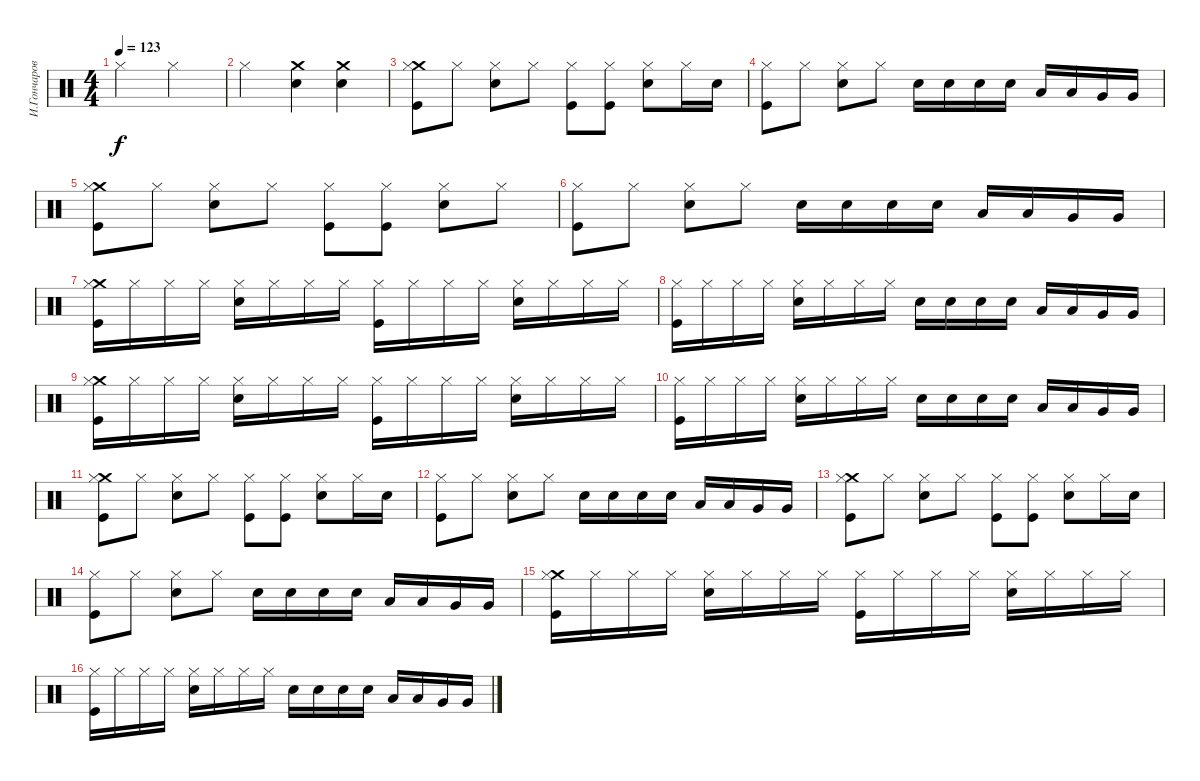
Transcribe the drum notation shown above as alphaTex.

\track ("И.Гончаров" "И.Гончаров") {instrument percussion}
\staff {score}
\articulation defaults
\ts (4 4)
\tempo 123
\clef neutral
\ks c "Hi-Hat (closed)".2{dy f} "Hi-Hat (closed)".2
|
"Hi-Hat (closed)".2 ("Crash medium (hit)" "Snare (hit) 2").4 ("Crash medium (hit)" "Snare (hit) 2").4 |
("Crash medium (hit)" "Hi-Hat (closed)" "Kick (hit)").8 "Hi-Hat (closed)".8 ("Hi-Hat (closed)" "Snare (hit) 2").8 "Hi-Hat (closed)".8 ("Hi-Hat (closed)" "Kick (hit)").8 ("Hi-Hat (closed)" "Kick (hit)").8 ("Hi-Hat (closed)" "Snare (hit) 2").8 "Hi-Hat (closed)".16 "Snare (hit) 2".16 |
("Hi-Hat (closed)" "Kick (hit)").8 "Hi-Hat (closed)".8 ("Hi-Hat (closed)" "Snare (hit) 2").8 "Hi-Hat (closed)".8 "Snare (hit) 2".16 "Snare (hit) 2".16 "Snare (hit) 2".16 "Snare (hit) 2".16 "Low Tom (hit)".16 "Low Tom (hit)".16 "Very Low Tom (hit)".16 "Very Low Tom (hit)".16 |
("Crash medium (hit)" "Hi-Hat (closed)" "Kick (hit)").8 "Hi-Hat (closed)".8 ("Hi-Hat (closed)" "Snare (hit) 2").8 "Hi-Hat (closed)".8 ("Hi-Hat (closed)" "Kick (hit)").8 ("Hi-Hat (closed)" "Kick (hit)").8 ("Hi-Hat (closed)" "Snare (hit) 2").8 "Hi-Hat (closed)".8 |
("Hi-Hat (closed)" "Kick (hit)").8 "Hi-Hat (closed)".8 ("Hi-Hat (closed)" "Snare (hit) 2").8 "Hi-Hat (closed)".8 "Snare (hit) 2".16 "Snare (hit) 2".16 "Snare (hit) 2".16 "Snare (hit) 2".16 "Low Tom (hit)".16 "Low Tom (hit)".16 "Very Low Tom (hit)".16 "Very Low Tom (hit)".16 |
("Crash medium (hit)" "Hi-Hat (closed)" "Kick (hit)").16 "Hi-Hat (closed)".16 "Hi-Hat (closed)".16 "Hi-Hat (closed)".16 ("Hi-Hat (closed)" "Snare (hit) 2").16 "Hi-Hat (closed)".16 "Hi-Hat (closed)".16 "Hi-Hat (closed)".16 ("Hi-Hat (closed)" "Kick (hit)").16 "Hi-Hat (closed)".16 "Hi-Hat (closed)".16 "Hi-Hat (closed)".16 ("Hi-Hat (closed)" "Snare (hit) 2").16 "Hi-Hat (closed)".16 "Hi-Hat (closed)".16 "Hi-Hat (closed)".16 |
("Hi-Hat (closed)" "Kick (hit)").16 "Hi-Hat (closed)".16 "Hi-Hat (closed)".16 "Hi-Hat (closed)".16 ("Hi-Hat (closed)" "Snare (hit) 2").16 "Hi-Hat (closed)".16 "Hi-Hat (closed)".16 "Hi-Hat (closed)".16 "Snare (hit) 2".16 "Snare (hit) 2".16 "Snare (hit) 2".16 "Snare (hit) 2".16 "Low Tom (hit)".16 "Low Tom (hit)".16 "Very Low Tom (hit)".16 "Very Low Tom (hit)".16 |
("Crash medium (hit)" "Hi-Hat (closed)" "Kick (hit)").16 "Hi-Hat (closed)".16 "Hi-Hat (closed)".16 "Hi-Hat (closed)".16 ("Hi-Hat (closed)" "Snare (hit) 2").16 "Hi-Hat (closed)".16 "Hi-Hat (closed)".16 "Hi-Hat (closed)".16 ("Hi-Hat (closed)" "Kick (hit)").16 "Hi-Hat (closed)".16 "Hi-Hat (closed)".16 "Hi-Hat (closed)".16 ("Hi-Hat (closed)" "Snare (hit) 2").16 "Hi-Hat (closed)".16 "Hi-Hat (closed)".16 "Hi-Hat (closed)".16 |
("Hi-Hat (closed)" "Kick (hit)").16 "Hi-Hat (closed)".16 "Hi-Hat (closed)".16 "Hi-Hat (closed)".16 ("Hi-Hat (closed)" "Snare (hit) 2").16 "Hi-Hat (closed)".16 "Hi-Hat (closed)".16 "Hi-Hat (closed)".16 "Snare (hit) 2".16 "Snare (hit) 2".16 "Snare (hit) 2".16 "Snare (hit) 2".16 "Low Tom (hit)".16 "Low Tom (hit)".16 "Very Low Tom (hit)".16 "Very Low Tom (hit)".16 |
("Crash medium (hit)" "Hi-Hat (closed)" "Kick (hit)").8 "Hi-Hat (closed)".8 ("Hi-Hat (closed)" "Snare (hit) 2").8 "Hi-Hat (closed)".8 ("Hi-Hat (closed)" "Kick (hit)").8 ("Hi-Hat (closed)" "Kick (hit)").8 ("Hi-Hat (closed)" "Snare (hit) 2").8 "Hi-Hat (closed)".16 "Snare (hit) 2".16 |
("Hi-Hat (closed)" "Kick (hit)").8 "Hi-Hat (closed)".8 ("Hi-Hat (closed)" "Snare (hit) 2").8 "Hi-Hat (closed)".8 "Snare (hit) 2".16 "Snare (hit) 2".16 "Snare (hit) 2".16 "Snare (hit) 2".16 "Low Tom (hit)".16 "Low Tom (hit)".16 "Very Low Tom (hit)".16 "Very Low Tom (hit)".16 |
("Crash medium (hit)" "Hi-Hat (closed)" "Kick (hit)").8 "Hi-Hat (closed)".8 ("Hi-Hat (closed)" "Snare (hit) 2").8 "Hi-Hat (closed)".8 ("Hi-Hat (closed)" "Kick (hit)").8 ("Hi-Hat (closed)" "Kick (hit)").8 ("Hi-Hat (closed)" "Snare (hit) 2").8 "Hi-Hat (closed)".16 "Snare (hit) 2".16 |
("Hi-Hat (closed)" "Kick (hit)").8 "Hi-Hat (closed)".8 ("Hi-Hat (closed)" "Snare (hit) 2").8 "Hi-Hat (closed)".8 "Snare (hit) 2".16 "Snare (hit) 2".16 "Snare (hit) 2".16 "Snare (hit) 2".16 "Low Tom (hit)".16 "Low Tom (hit)".16 "Very Low Tom (hit)".16 "Very Low Tom (hit)".16 |
("Crash medium (hit)" "Hi-Hat (closed)" "Kick (hit)").16 "Hi-Hat (closed)".16 "Hi-Hat (closed)".16 "Hi-Hat (closed)".16 ("Hi-Hat (closed)" "Snare (hit) 2").16 "Hi-Hat (closed)".16 "Hi-Hat (closed)".16 "Hi-Hat (closed)".16 ("Hi-Hat (closed)" "Kick (hit)").16 "Hi-Hat (closed)".16 "Hi-Hat (closed)".16 "Hi-Hat (closed)".16 ("Hi-Hat (closed)" "Snare (hit) 2").16 "Hi-Hat (closed)".16 "Hi-Hat (closed)".16 "Hi-Hat (closed)".16 |
("Hi-Hat (closed)" "Kick (hit)").16 "Hi-Hat (closed)".16 "Hi-Hat (closed)".16 "Hi-Hat (closed)".16 ("Hi-Hat (closed)" "Snare (hit) 2").16 "Hi-Hat (closed)".16 "Hi-Hat (closed)".16 "Hi-Hat (closed)".16 "Snare (hit) 2".16 "Snare (hit) 2".16 "Snare (hit) 2".16 "Snare (hit) 2".16 "Low Tom (hit)".16 "Low Tom (hit)".16 "Very Low Tom (hit)".16 "Very Low Tom (hit)".16
